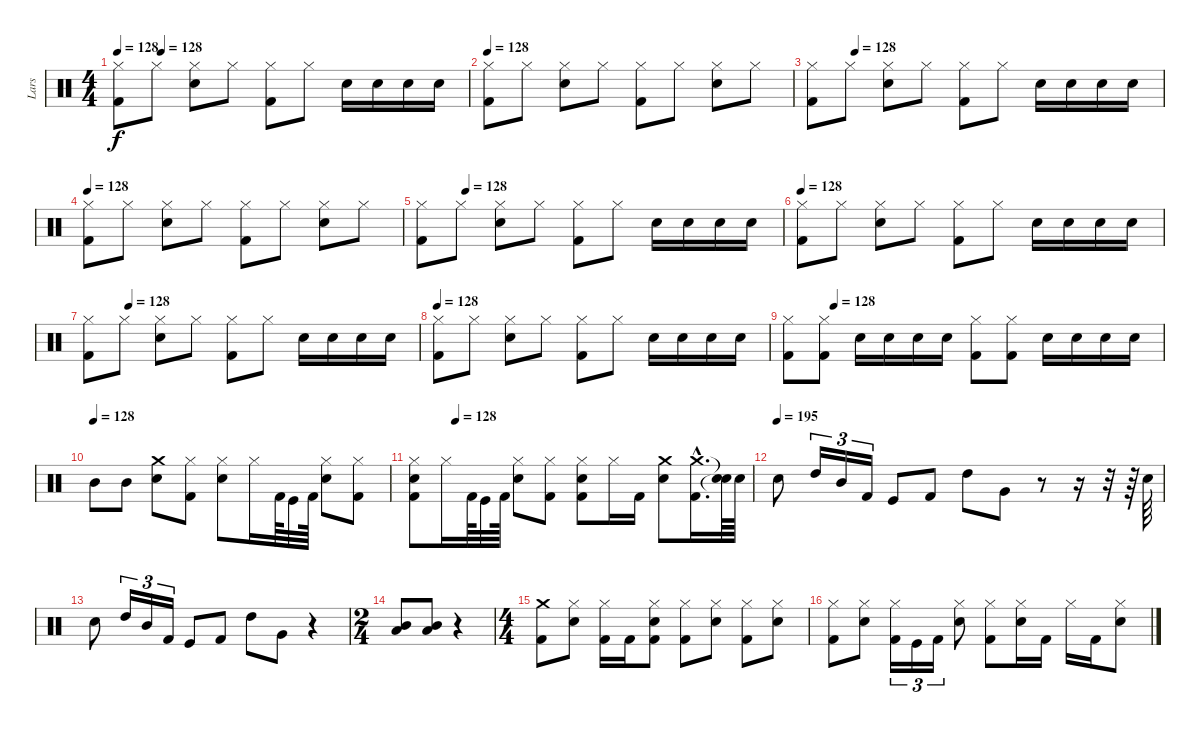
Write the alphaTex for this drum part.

\track ("Lars" "Lars") {instrument percussion}
\staff {score}
\articulation defaults
\ts (4 4)
\tempo 128
\tempo (128 0.125)
\clef neutral
\ks c
("Hi-Hat (closed)" "Kick (hit) 2").8{dy f} "Hi-Hat (closed)".8 ("Snare (hit) 2" "Hi-Hat (closed)").8 "Hi-Hat (closed)".8 ("Hi-Hat (closed)" "Kick (hit) 2").8 "Hi-Hat (closed)".8 "Snare (hit) 2".16 "Snare (hit) 2".16 "Snare (hit) 2".16 "Snare (hit) 2".16 |
\tempo 128
("Hi-Hat (closed)" "Kick (hit) 2").8 "Hi-Hat (closed)".8 ("Snare (hit) 2" "Hi-Hat (closed)").8 "Hi-Hat (closed)".8 ("Hi-Hat (closed)" "Kick (hit) 2").8 "Hi-Hat (closed)".8 ("Snare (hit) 2" "Hi-Hat (closed)").8 "Hi-Hat (closed)".8 |
\tempo (128 0.125)
("Hi-Hat (closed)" "Kick (hit) 2").8 "Hi-Hat (closed)".8 ("Snare (hit) 2" "Hi-Hat (closed)").8 "Hi-Hat (closed)".8 ("Hi-Hat (closed)" "Kick (hit) 2").8 "Hi-Hat (closed)".8 "Snare (hit) 2".16 "Snare (hit) 2".16 "Snare (hit) 2".16 "Snare (hit) 2".16 |
\tempo 128
("Hi-Hat (closed)" "Kick (hit) 2").8 "Hi-Hat (closed)".8 ("Snare (hit) 2" "Hi-Hat (closed)").8 "Hi-Hat (closed)".8 ("Hi-Hat (closed)" "Kick (hit) 2").8 "Hi-Hat (closed)".8 ("Snare (hit) 2" "Hi-Hat (closed)").8 "Hi-Hat (closed)".8 |
\tempo (128 0.125)
("Hi-Hat (closed)" "Kick (hit) 2").8 "Hi-Hat (closed)".8 ("Snare (hit) 2" "Hi-Hat (closed)").8 "Hi-Hat (closed)".8 ("Hi-Hat (closed)" "Kick (hit) 2").8 "Hi-Hat (closed)".8 "Snare (hit) 2".16 "Snare (hit) 2".16 "Snare (hit) 2".16 "Snare (hit) 2".16 |
\tempo 128
("Hi-Hat (closed)" "Kick (hit) 2").8 "Hi-Hat (closed)".8 ("Snare (hit) 2" "Hi-Hat (closed)").8 "Hi-Hat (closed)".8 ("Hi-Hat (closed)" "Kick (hit) 2").8 "Hi-Hat (closed)".8 "Snare (hit) 2".16 "Snare (hit) 2".16 "Snare (hit) 2".16 "Snare (hit) 2".16 |
\tempo (128 0.125)
("Hi-Hat (closed)" "Kick (hit) 2").8 "Hi-Hat (closed)".8 ("Snare (hit) 2" "Hi-Hat (closed)").8 "Hi-Hat (closed)".8 ("Hi-Hat (closed)" "Kick (hit) 2").8 "Hi-Hat (closed)".8 "Snare (hit) 2".16 "Snare (hit) 2".16 "Snare (hit) 2".16 "Snare (hit) 2".16 |
\tempo 128
("Hi-Hat (closed)" "Kick (hit) 2").8 "Hi-Hat (closed)".8 ("Snare (hit) 2" "Hi-Hat (closed)").8 "Hi-Hat (closed)".8 ("Hi-Hat (closed)" "Kick (hit) 2").8 "Hi-Hat (closed)".8 "Snare (hit) 2".16 "Snare (hit) 2".16 "Snare (hit) 2".16 "Snare (hit) 2".16 |
\tempo (128 0.125)
("Kick (hit) 2" "Hi-Hat (closed)").8 ("Kick (hit) 2" "Hi-Hat (closed)").8 "Snare (hit) 2".16 "Snare (hit) 2".16 "Snare (hit) 2".16 "Snare (hit) 2".16 ("Kick (hit) 2" "Hi-Hat (closed)").8 ("Kick (hit) 2" "Hi-Hat (closed)").8 "Snare (hit) 2".16 "Snare (hit) 2".16 "Snare (hit) 2".16 "Snare (hit) 2".16 |
\tempo (128)
"Mid Tom (hit)".8 "Mid Tom (hit)".8 ("Crash medium (hit)" "Snare (hit) 2").8 ("Kick (hit) 2" "Hi-Hat (closed)").8 ("Snare (hit) 2" "Hi-Hat (closed)").8 "Hi-Hat (closed)".16 "Kick (hit) 2".64 "Kick (hit)".32 "Kick (hit) 2".64 ("Snare (hit) 2" "Hi-Hat (closed)").8 ("Kick (hit) 2" "Hi-Hat (closed)").8 |
\tempo (128 0.125)
("Hi-Hat (closed)" "Snare (hit) 2" "Kick (hit) 2").8 "Hi-Hat (closed)".16 "Kick (hit) 2".64 "Kick (hit)".32 "Kick (hit) 2".64 ("Snare (hit) 2" "Hi-Hat (closed)").8 ("Hi-Hat (closed)" "Kick (hit) 2").8 ("Snare (hit) 2" "Hi-Hat (closed)" "Kick (hit) 2").8 "Hi-Hat (closed)".16 "Kick (hit) 2".16 ("Crash medium (hit)" "Snare (hit) 2").8 ("Crash medium (hit)"{hac} "Kick (hit) 2"{hac}).16{d} ("Snare (hit)"{t} "Snare (hit)"{t}).64 "Snare (hit) 2".64 |
\tempo (195)
"Snare (hit) 2".8 "High Tom (hit)".16{tu (3 2)} "Mid Tom (hit)".16{tu (3 2)} "Kick (hit) 2".16{tu (3 2)} "Kick (hit)".8 "Kick (hit) 2".8 "High Tom (hit)".8 "Very Low Tom (hit)".8 r.8 r.16 r.32 r.64 "Snare (hit) 2".64 |
"Snare (hit) 2".8 "High Tom (hit)".16{tu (3 2)} "Mid Tom (hit)".16{tu (3 2)} "Kick (hit) 2".16{tu (3 2)} "Kick (hit)".8 "Kick (hit) 2".8 "High Tom (hit)".8 "Very Low Tom (hit)".8 r.4 |
\ts (2 4)
("Mid Tom (hit)" "Low Tom (hit)").8 ("Mid Tom (hit)" "Low Tom (hit)").8 r.4 |
\ts (4 4)
("Kick (hit) 2" "Crash medium (hit)").8 ("Hi-Hat (closed)" "Snare (hit) 2").8 ("Kick (hit) 2" "Hi-Hat (closed)").16 "Kick (hit) 2".16 ("Kick (hit) 2" "Snare (hit) 2" "Hi-Hat (closed)").8 ("Kick (hit) 2" "Hi-Hat (closed)").8 ("Snare (hit) 2" "Hi-Hat (closed)").8 ("Kick (hit) 2" "Hi-Hat (closed)").8 ("Snare (hit) 2" "Hi-Hat (closed)").8 |
("Kick (hit) 2" "Hi-Hat (closed)").8 ("Snare (hit) 2" "Hi-Hat (closed)").8 ("Kick (hit) 2" "Hi-Hat (closed)").16{tu (3 2)} "Kick (hit)".16{tu (3 2)} "Kick (hit) 2".16{tu (3 2)} ("Snare (hit) 2" "Hi-Hat (closed)").8 ("Kick (hit) 2" "Hi-Hat (closed)").8 ("Snare (hit) 2" "Hi-Hat (closed)").16 "Kick (hit) 2".16 "Hi-Hat (closed)".16 "Kick (hit) 2".16 ("Snare (hit) 2" "Hi-Hat (closed)").8
